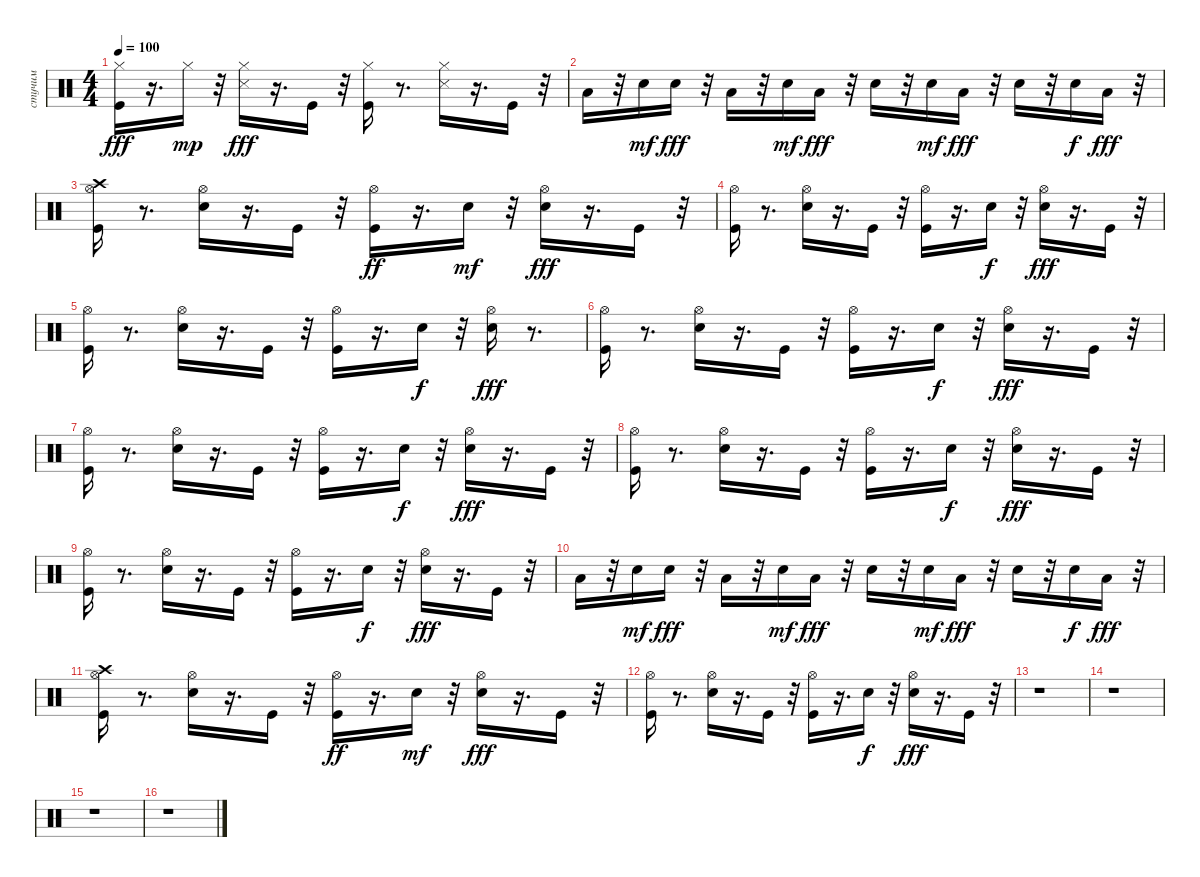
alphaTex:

\track ("стучим" "стучим") {instrument percussion}
\staff {score}
\articulation defaults
\ts (4 4)
\tempo 100
\clef neutral
\ks c
("Kick (hit)" "Hi-Hat (closed)").16{dy fff} r.16{d} "Hi-Hat (closed)".16{dy mp} r.32 ("Hi-Hat (closed)" "Snare (side stick) 3").16{dy fff} r.16{d} "Kick (hit)".16 r.32 ("Kick (hit)" "Hi-Hat (closed)").16 r.8{d} ("Hi-Hat (closed)" "Snare (side stick) 3").16{balance 0} r.16{d} "Kick (hit)".16 r.32 |
"Low Floor Tom (hit)".16 r.32 "Snare (hit) 2".16{dy mf} "Snare (hit) 2".16{dy fff} r.32 "Low Floor Tom (hit)".16{balance 16} r.32 "Snare (hit) 2".16{dy mf} "Low Floor Tom (hit)".16{dy fff} r.32 "Snare (hit) 2".16 r.32 "Snare (hit) 2".16{dy mf} "Low Floor Tom (hit)".16{dy fff} r.32 "Snare (hit) 2".16 r.32 "Snare (hit) 2".16{dy f balance 8} "Low Floor Tom (hit)".16{dy fff} r.32 |
("Kick (hit)" "Hi-Hat (open)" "Crash high (hit)").16 r.8{d} ("Snare (hit) 2" "Hi-Hat (open)").16 r.16{d} "Kick (hit)".16 r.32 ("Kick (hit)" "Hi-Hat (open)").16{dy ff} r.16{d} "Snare (hit) 2".16{dy mf} r.32 ("Snare (hit) 2" "Hi-Hat (open)").16{dy fff} r.16{d} "Kick (hit)".16 r.32 |
("Kick (hit)" "Hi-Hat (open)").16 r.8{d} ("Snare (hit) 2" "Hi-Hat (open)").16 r.16{d} "Kick (hit)".16 r.32 ("Kick (hit)" "Hi-Hat (open)").16 r.16{d} "Snare (hit) 2".16{dy f} r.32 ("Snare (hit) 2" "Hi-Hat (open)").16{dy fff} r.16{d} "Kick (hit)".16 r.32 |
("Kick (hit)" "Hi-Hat (open)").16 r.8{d} ("Snare (hit) 2" "Hi-Hat (open)").16 r.16{d} "Kick (hit)".16 r.32 ("Kick (hit)" "Hi-Hat (open)").16 r.16{d} "Snare (hit) 2".16{dy f} r.32 ("Snare (hit) 2" "Hi-Hat (open)").16{dy fff} r.8{d} |
("Kick (hit)" "Hi-Hat (open)").16 r.8{d} ("Snare (hit) 2" "Hi-Hat (open)").16 r.16{d} "Kick (hit)".16 r.32 ("Kick (hit)" "Hi-Hat (open)").16 r.16{d} "Snare (hit) 2".16{dy f} r.32 ("Snare (hit) 2" "Hi-Hat (open)").16{dy fff} r.16{d} "Kick (hit)".16 r.32 |
("Kick (hit)" "Hi-Hat (open)").16 r.8{d} ("Snare (hit) 2" "Hi-Hat (open)").16 r.16{d} "Kick (hit)".16 r.32 ("Kick (hit)" "Hi-Hat (open)").16 r.16{d} "Snare (hit) 2".16{dy f} r.32 ("Snare (hit) 2" "Hi-Hat (open)").16{dy fff} r.16{d} "Kick (hit)".16 r.32 |
("Kick (hit)" "Hi-Hat (open)").16 r.8{d} ("Snare (hit) 2" "Hi-Hat (open)").16 r.16{d} "Kick (hit)".16 r.32 ("Kick (hit)" "Hi-Hat (open)").16 r.16{d} "Snare (hit) 2".16{dy f} r.32 ("Snare (hit) 2" "Hi-Hat (open)").16{dy fff} r.16{d} "Kick (hit)".16 r.32 |
("Kick (hit)" "Hi-Hat (open)").16 r.8{d} ("Snare (hit) 2" "Hi-Hat (open)").16 r.16{d} "Kick (hit)".16 r.32 ("Kick (hit)" "Hi-Hat (open)").16 r.16{d} "Snare (hit) 2".16{dy f} r.32 ("Snare (hit) 2" "Hi-Hat (open)").16{dy fff} r.16{d} "Kick (hit)".16 r.32 |
"Low Floor Tom (hit)".16 r.32 "Snare (hit) 2".16{dy mf} "Snare (hit) 2".16{dy fff balance 0} r.32 "Low Floor Tom (hit)".16 r.32 "Snare (hit) 2".16{dy mf} "Low Floor Tom (hit)".16{dy fff} r.32 "Snare (hit) 2".16{balance 16} r.32 "Snare (hit) 2".16{dy mf} "Low Floor Tom (hit)".16{dy fff} r.32 "Snare (hit) 2".16 r.32 "Snare (hit) 2".16{dy f} "Low Floor Tom (hit)".16{dy fff} r.32 |
("Kick (hit)" "Hi-Hat (open)" "Crash high (hit)").16{balance 0} r.8{d} ("Snare (hit) 2" "Hi-Hat (open)").16 r.16{d} "Kick (hit)".16 r.32 ("Kick (hit)" "Hi-Hat (open)").16{dy ff balance 8} r.16{d} "Snare (hit) 2".16{dy mf} r.32 ("Snare (hit) 2" "Hi-Hat (open)").16{dy fff} r.16{d} "Kick (hit)".16 r.32 |
("Kick (hit)" "Hi-Hat (open)").16 r.8{d} ("Snare (hit) 2" "Hi-Hat (open)").16 r.16{d} "Kick (hit)".16 r.32 ("Kick (hit)" "Hi-Hat (open)").16 r.16{d} "Snare (hit) 2".16{dy f} r.32 ("Snare (hit) 2" "Hi-Hat (open)").16{dy fff} r.16{d} "Kick (hit)".16 r.32 |
r.1 |
r.1 |
r.1 |
r.1
